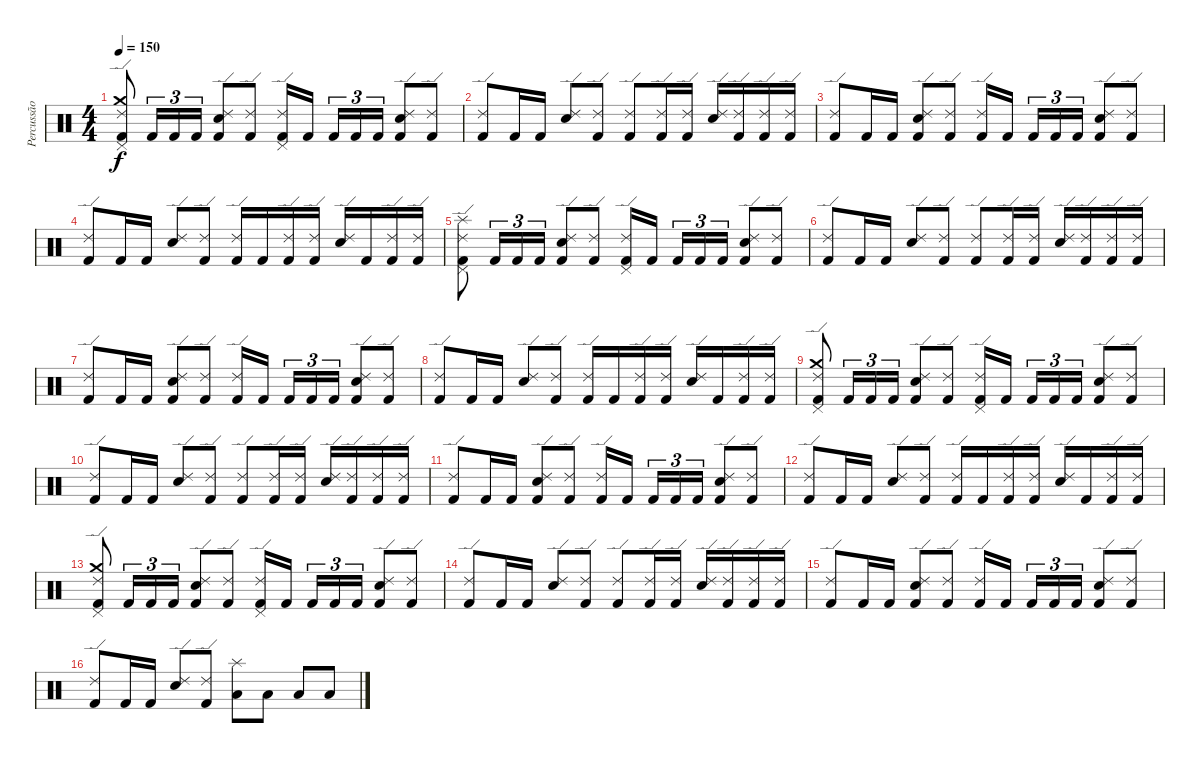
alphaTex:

\track ("Percussão" "Percussão") {instrument percussion}
\staff {score}
\articulation defaults
\ts (4 4)
\tempo 150
\clef neutral
\ks c
("Kick (hit) 2" "Pedal Hi-Hat (hit)" "Crash medium (hit)" "Ride (edge) 2").8{dy f} "Kick (hit) 2".16{tu (3 2)} "Kick (hit) 2".16{tu (3 2)} "Kick (hit) 2".16{tu (3 2)} ("Kick (hit) 2" "Snare (hit) 2" "Ride (edge) 2").8 ("Kick (hit) 2" "Ride (edge) 2").8 ("Kick (hit) 2" "Pedal Hi-Hat (hit)" "Ride (edge) 2").16 "Kick (hit) 2".16 "Kick (hit) 2".16{tu (3 2)} "Kick (hit) 2".16{tu (3 2)} "Kick (hit) 2".16{tu (3 2)} ("Kick (hit) 2" "Snare (hit) 2" "Ride (edge) 2").8 ("Kick (hit) 2" "Ride (edge) 2").8 |
("Kick (hit) 2" "Ride (edge) 2").8 "Kick (hit) 2".16 "Kick (hit) 2".16 ("Snare (hit) 2" "Ride (edge) 2").8 ("Kick (hit) 2" "Ride (edge) 2").8 ("Kick (hit) 2" "Ride (edge) 2").8 ("Kick (hit) 2" "Ride (edge) 2").16 ("Kick (hit) 2" "Ride (edge) 2").16 ("Snare (hit) 2" "Ride (edge) 2").16 ("Kick (hit) 2" "Ride (edge) 2").16 ("Kick (hit) 2" "Ride (edge) 2").16 ("Kick (hit) 2" "Ride (edge) 2").16 |
("Kick (hit) 2" "Ride (edge) 2").8 "Kick (hit) 2".16 "Kick (hit) 2".16 ("Kick (hit) 2" "Snare (hit) 2" "Ride (edge) 2").8 ("Kick (hit) 2" "Ride (edge) 2").8 ("Kick (hit) 2" "Ride (edge) 2").16 "Kick (hit) 2".16 "Kick (hit) 2".16{tu (3 2)} "Kick (hit) 2".16{tu (3 2)} "Kick (hit) 2".16{tu (3 2)} ("Kick (hit) 2" "Snare (hit) 2" "Ride (edge) 2").8 ("Kick (hit) 2" "Ride (edge) 2").8 |
("Kick (hit) 2" "Ride (edge) 2").8 "Kick (hit) 2".16 "Kick (hit) 2".16 ("Snare (hit) 2" "Ride (edge) 2").8 ("Kick (hit) 2" "Ride (edge) 2").8 ("Kick (hit) 2" "Ride (edge) 2").16 "Kick (hit) 2".16 ("Kick (hit) 2" "Ride (edge) 2").16 ("Kick (hit) 2" "Ride (edge) 2").16 ("Snare (hit) 2" "Ride (edge) 2").16 "Kick (hit) 2".16 ("Kick (hit) 2" "Ride (edge) 2").16 ("Kick (hit) 2" "Ride (edge) 2").16 |
("Kick (hit) 2" "Pedal Hi-Hat (hit)" "Splash (hit)" "Ride (edge) 2").8 "Kick (hit) 2".16{tu (3 2)} "Kick (hit) 2".16{tu (3 2)} "Kick (hit) 2".16{tu (3 2)} ("Kick (hit) 2" "Snare (hit) 2" "Ride (edge) 2").8 ("Kick (hit) 2" "Ride (edge) 2").8 ("Kick (hit) 2" "Pedal Hi-Hat (hit)" "Ride (edge) 2").16 "Kick (hit) 2".16 "Kick (hit) 2".16{tu (3 2)} "Kick (hit) 2".16{tu (3 2)} "Kick (hit) 2".16{tu (3 2)} ("Kick (hit) 2" "Snare (hit) 2" "Ride (edge) 2").8 ("Kick (hit) 2" "Ride (edge) 2").8 |
("Kick (hit) 2" "Ride (edge) 2").8 "Kick (hit) 2".16 "Kick (hit) 2".16 ("Snare (hit) 2" "Ride (edge) 2").8 ("Kick (hit) 2" "Ride (edge) 2").8 ("Kick (hit) 2" "Ride (edge) 2").8 ("Kick (hit) 2" "Ride (edge) 2").16 ("Kick (hit) 2" "Ride (edge) 2").16 ("Snare (hit) 2" "Ride (edge) 2").16 ("Kick (hit) 2" "Ride (edge) 2").16 ("Kick (hit) 2" "Ride (edge) 2").16 ("Kick (hit) 2" "Ride (edge) 2").16 |
("Kick (hit) 2" "Ride (edge) 2").8 "Kick (hit) 2".16 "Kick (hit) 2".16 ("Kick (hit) 2" "Snare (hit) 2" "Ride (edge) 2").8 ("Kick (hit) 2" "Ride (edge) 2").8 ("Kick (hit) 2" "Ride (edge) 2").16 "Kick (hit) 2".16 "Kick (hit) 2".16{tu (3 2)} "Kick (hit) 2".16{tu (3 2)} "Kick (hit) 2".16{tu (3 2)} ("Kick (hit) 2" "Snare (hit) 2" "Ride (edge) 2").8 ("Kick (hit) 2" "Ride (edge) 2").8 |
("Kick (hit) 2" "Ride (edge) 2").8 "Kick (hit) 2".16 "Kick (hit) 2".16 ("Snare (hit) 2" "Ride (edge) 2").8 ("Kick (hit) 2" "Ride (edge) 2").8 ("Kick (hit) 2" "Ride (edge) 2").16 "Kick (hit) 2".16 ("Kick (hit) 2" "Ride (edge) 2").16 ("Kick (hit) 2" "Ride (edge) 2").16 ("Snare (hit) 2" "Ride (edge) 2").16 "Kick (hit) 2".16 ("Kick (hit) 2" "Ride (edge) 2").16 ("Kick (hit) 2" "Ride (edge) 2").16 |
("Kick (hit) 2" "Pedal Hi-Hat (hit)" "Crash medium (hit)" "Ride (edge) 2").8 "Kick (hit) 2".16{tu (3 2)} "Kick (hit) 2".16{tu (3 2)} "Kick (hit) 2".16{tu (3 2)} ("Kick (hit) 2" "Snare (hit) 2" "Ride (edge) 2").8 ("Kick (hit) 2" "Ride (edge) 2").8 ("Kick (hit) 2" "Pedal Hi-Hat (hit)" "Ride (edge) 2").16 "Kick (hit) 2".16 "Kick (hit) 2".16{tu (3 2)} "Kick (hit) 2".16{tu (3 2)} "Kick (hit) 2".16{tu (3 2)} ("Kick (hit) 2" "Snare (hit) 2" "Ride (edge) 2").8 ("Kick (hit) 2" "Ride (edge) 2").8 |
("Kick (hit) 2" "Ride (edge) 2").8 "Kick (hit) 2".16 "Kick (hit) 2".16 ("Snare (hit) 2" "Ride (edge) 2").8 ("Kick (hit) 2" "Ride (edge) 2").8 ("Kick (hit) 2" "Ride (edge) 2").8 ("Kick (hit) 2" "Ride (edge) 2").16 ("Kick (hit) 2" "Ride (edge) 2").16 ("Snare (hit) 2" "Ride (edge) 2").16 ("Kick (hit) 2" "Ride (edge) 2").16 ("Kick (hit) 2" "Ride (edge) 2").16 ("Kick (hit) 2" "Ride (edge) 2").16 |
("Kick (hit) 2" "Ride (edge) 2").8 "Kick (hit) 2".16 "Kick (hit) 2".16 ("Kick (hit) 2" "Snare (hit) 2" "Ride (edge) 2").8 ("Kick (hit) 2" "Ride (edge) 2").8 ("Kick (hit) 2" "Ride (edge) 2").16 "Kick (hit) 2".16 "Kick (hit) 2".16{tu (3 2)} "Kick (hit) 2".16{tu (3 2)} "Kick (hit) 2".16{tu (3 2)} ("Kick (hit) 2" "Snare (hit) 2" "Ride (edge) 2").8 ("Kick (hit) 2" "Ride (edge) 2").8 |
("Kick (hit) 2" "Ride (edge) 2").8 "Kick (hit) 2".16 "Kick (hit) 2".16 ("Snare (hit) 2" "Ride (edge) 2").8 ("Kick (hit) 2" "Ride (edge) 2").8 ("Kick (hit) 2" "Ride (edge) 2").16 "Kick (hit) 2".16 ("Kick (hit) 2" "Ride (edge) 2").16 ("Kick (hit) 2" "Ride (edge) 2").16 ("Snare (hit) 2" "Ride (edge) 2").16 "Kick (hit) 2".16 ("Kick (hit) 2" "Ride (edge) 2").16 ("Kick (hit) 2" "Ride (edge) 2").16 |
("Kick (hit) 2" "Pedal Hi-Hat (hit)" "Crash medium (hit)" "Ride (edge) 2").8 "Kick (hit) 2".16{tu (3 2)} "Kick (hit) 2".16{tu (3 2)} "Kick (hit) 2".16{tu (3 2)} ("Kick (hit) 2" "Snare (hit) 2" "Ride (edge) 2").8 ("Kick (hit) 2" "Ride (edge) 2").8 ("Kick (hit) 2" "Pedal Hi-Hat (hit)" "Ride (edge) 2").16 "Kick (hit) 2".16 "Kick (hit) 2".16{tu (3 2)} "Kick (hit) 2".16{tu (3 2)} "Kick (hit) 2".16{tu (3 2)} ("Kick (hit) 2" "Snare (hit) 2" "Ride (edge) 2").8 ("Kick (hit) 2" "Ride (edge) 2").8 |
("Kick (hit) 2" "Ride (edge) 2").8 "Kick (hit) 2".16 "Kick (hit) 2".16 ("Snare (hit) 2" "Ride (edge) 2").8 ("Kick (hit) 2" "Ride (edge) 2").8 ("Kick (hit) 2" "Ride (edge) 2").8 ("Kick (hit) 2" "Ride (edge) 2").16 ("Kick (hit) 2" "Ride (edge) 2").16 ("Snare (hit) 2" "Ride (edge) 2").16 ("Kick (hit) 2" "Ride (edge) 2").16 ("Kick (hit) 2" "Ride (edge) 2").16 ("Kick (hit) 2" "Ride (edge) 2").16 |
("Kick (hit) 2" "Ride (edge) 2").8 "Kick (hit) 2".16 "Kick (hit) 2".16 ("Kick (hit) 2" "Snare (hit) 2" "Ride (edge) 2").8 ("Kick (hit) 2" "Ride (edge) 2").8 ("Kick (hit) 2" "Ride (edge) 2").16 "Kick (hit) 2".16 "Kick (hit) 2".16{tu (3 2)} "Kick (hit) 2".16{tu (3 2)} "Kick (hit) 2".16{tu (3 2)} ("Kick (hit) 2" "Snare (hit) 2" "Ride (edge) 2").8 ("Kick (hit) 2" "Ride (edge) 2").8 |
("Kick (hit) 2" "Ride (edge) 2").8 "Kick (hit) 2".16 "Kick (hit) 2".16 ("Snare (hit) 2" "Ride (edge) 2").8 ("Kick (hit) 2" "Ride (edge) 2").8 ("Low Tom (hit)" "Splash (hit)").8 "Low Tom (hit)".8 "Low Tom (hit)".8 "Low Tom (hit)".8
